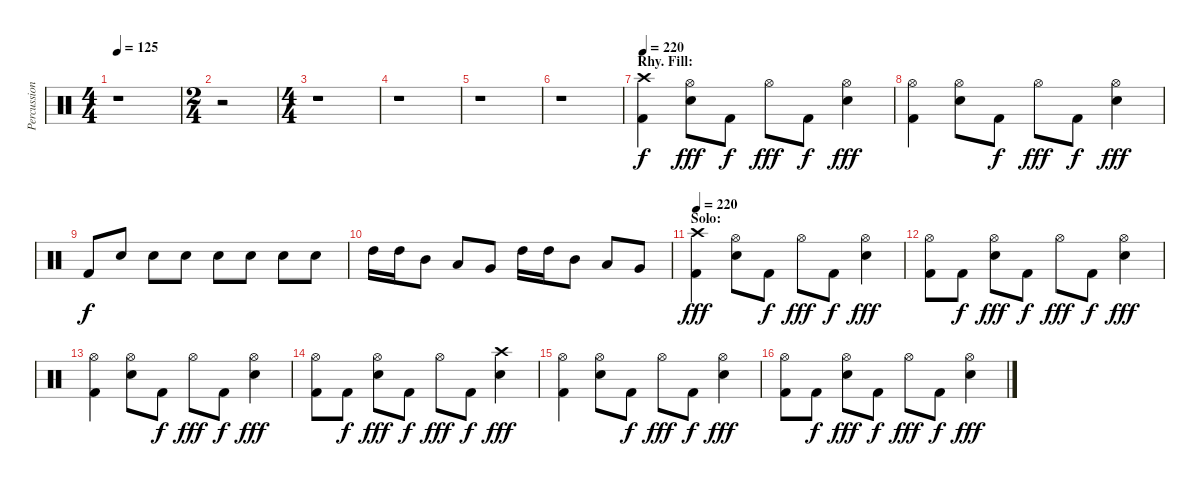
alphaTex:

\track ("Percussion" "Percussion") {instrument percussion}
\staff {score}
\articulation defaults
\ts (4 4)
\tempo 125
\clef neutral
\ks c
r.1{dy fff} |
\ts (2 4)
r.2 |
\ts (4 4)
r.1 |
r.1 |
r.1 |
r.1 |
\section ("" "Rhy. Fill:")
\tempo 220
("Crash high (hit)" "Kick (hit) 2").4{dy f} ("Hi-Hat (open)" "Electric Snare (hit)").8{dy fff} "Kick (hit) 2".8{dy f} "Hi-Hat (open)".8{dy fff} "Kick (hit) 2".8{dy f} ("Hi-Hat (open)" "Electric Snare (hit)").4{dy fff} |
("Hi-Hat (open)" "Kick (hit) 2").4 ("Hi-Hat (open)" "Electric Snare (hit)").8 "Kick (hit) 2".8{dy f} "Hi-Hat (open)".8{dy fff} "Kick (hit) 2".8{dy f} ("Hi-Hat (open)" "Electric Snare (hit)").4{dy fff} |
"Kick (hit) 2".8{dy f} "Electric Snare (hit)".8 "Electric Snare (hit)".8 "Electric Snare (hit)".8 "Electric Snare (hit)".8 "Electric Snare (hit)".8 "Electric Snare (hit)".8 "Electric Snare (hit)".8 |
"High Tom (hit)".16 "High Tom (hit)".16 "Mid Tom (hit)".8 "Low Tom (hit)".8 "Very Low Tom (hit)".8 "High Tom (hit)".16 "High Tom (hit)".16 "Mid Tom (hit)".8 "Low Tom (hit)".8 "Very Low Tom (hit)".8 |
\section ("" "Solo:")
\tempo 220
("Crash high (hit)" "Kick (hit) 2").4{dy fff} ("Hi-Hat (open)" "Electric Snare (hit)").8 "Kick (hit) 2".8{dy f} "Hi-Hat (open)".8{dy fff} "Kick (hit) 2".8{dy f} ("Hi-Hat (open)" "Electric Snare (hit)").4{dy fff} |
("Hi-Hat (open)" "Kick (hit) 2").8 "Kick (hit) 2".8{dy f} ("Hi-Hat (open)" "Electric Snare (hit)").8{dy fff} "Kick (hit) 2".8{dy f} "Hi-Hat (open)".8{dy fff} "Kick (hit) 2".8{dy f} ("Hi-Hat (open)" "Electric Snare (hit)").4{dy fff} |
("Hi-Hat (open)" "Kick (hit) 2").4 ("Hi-Hat (open)" "Electric Snare (hit)").8 "Kick (hit) 2".8{dy f} "Hi-Hat (open)".8{dy fff} "Kick (hit) 2".8{dy f} ("Hi-Hat (open)" "Electric Snare (hit)").4{dy fff} |
("Hi-Hat (open)" "Kick (hit) 2").8 "Kick (hit) 2".8{dy f} ("Hi-Hat (open)" "Electric Snare (hit)").8{dy fff} "Kick (hit) 2".8{dy f} "Hi-Hat (open)".8{dy fff} "Kick (hit) 2".8{dy f} ("Crash high (hit)" "Electric Snare (hit)").4{dy fff} |
("Hi-Hat (open)" "Kick (hit) 2").4 ("Hi-Hat (open)" "Electric Snare (hit)").8 "Kick (hit) 2".8{dy f} "Hi-Hat (open)".8{dy fff} "Kick (hit) 2".8{dy f} ("Hi-Hat (open)" "Electric Snare (hit)").4{dy fff} |
("Hi-Hat (open)" "Kick (hit) 2").8 "Kick (hit) 2".8{dy f} ("Hi-Hat (open)" "Electric Snare (hit)").8{dy fff} "Kick (hit) 2".8{dy f} "Hi-Hat (open)".8{dy fff} "Kick (hit) 2".8{dy f} ("Hi-Hat (open)" "Electric Snare (hit)").4{dy fff}
